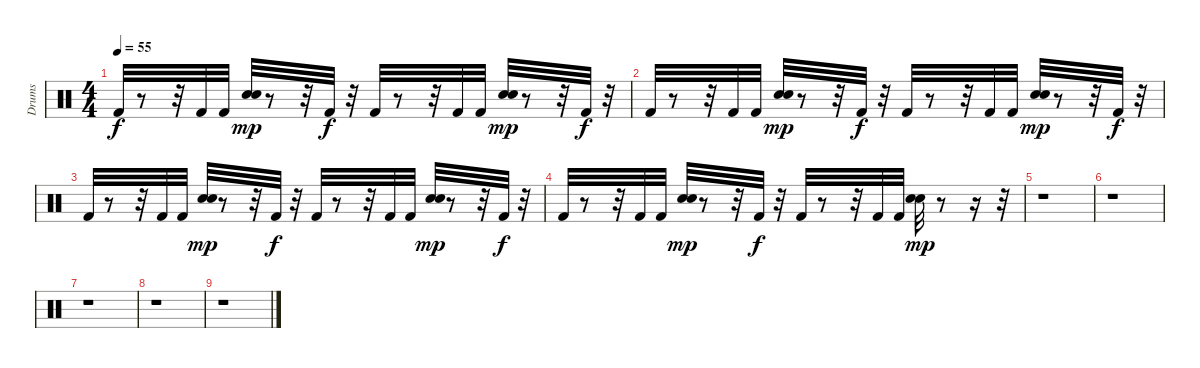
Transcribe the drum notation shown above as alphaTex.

\track ("Drums               " "Drums     ") {instrument percussion}
\staff {score}
\articulation defaults
\ts (4 4)
\tempo 55
\clef neutral
\ks c "Kick (hit) 2".32{dy f}
r.8 r.32 "Kick (hit) 2".32 "Kick (hit) 2".32 ("Snare (hit) 2" "Snare (hit) 2").32{dy mp} r.8 r.32 "Kick (hit) 2".32{dy f} r.32 "Kick (hit) 2".32 r.8 r.32 "Kick (hit) 2".32 "Kick (hit) 2".32 ("Snare (hit) 2" "Snare (hit) 2").32{dy mp} r.8 r.32 "Kick (hit) 2".32{dy f} r.32 |
"Kick (hit) 2".32 r.8 r.32 "Kick (hit) 2".32 "Kick (hit) 2".32 ("Snare (hit) 2" "Snare (hit) 2").32{dy mp} r.8 r.32 "Kick (hit) 2".32{dy f} r.32 "Kick (hit) 2".32 r.8 r.32 "Kick (hit) 2".32 "Kick (hit) 2".32 ("Snare (hit) 2" "Snare (hit) 2").32{dy mp} r.8 r.32 "Kick (hit) 2".32{dy f} r.32 |
"Kick (hit) 2".32 r.8 r.32 "Kick (hit) 2".32 "Kick (hit) 2".32 ("Snare (hit) 2" "Snare (hit) 2").32{dy mp} r.8 r.32 "Kick (hit) 2".32{dy f} r.32 "Kick (hit) 2".32 r.8 r.32 "Kick (hit) 2".32 "Kick (hit) 2".32 ("Snare (hit) 2" "Snare (hit) 2").32{dy mp} r.8 r.32 "Kick (hit) 2".32{dy f} r.32 |
"Kick (hit) 2".32 r.8 r.32 "Kick (hit) 2".32 "Kick (hit) 2".32 ("Snare (hit) 2" "Snare (hit) 2").32{dy mp} r.8 r.32 "Kick (hit) 2".32{dy f} r.32 "Kick (hit) 2".32 r.8 r.32 "Kick (hit) 2".32 "Kick (hit) 2".32 ("Snare (hit) 2" "Snare (hit) 2").32{dy mp} r.8 r.16 r.32 |
r.1 |
r.1 |
r.1 |
r.1 |
r.1
